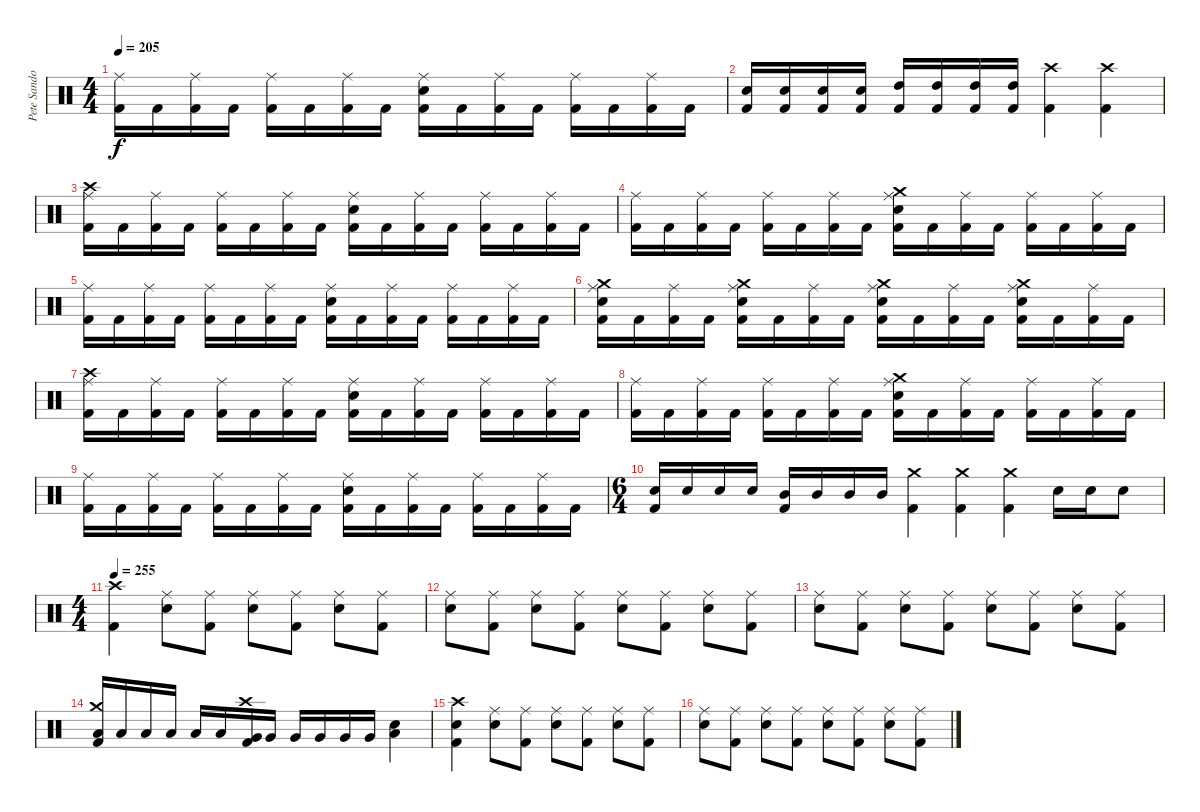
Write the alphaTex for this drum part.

\track ("Pete Sandoval" "Pete Sando") {instrument percussion}
\staff {score}
\articulation defaults
\ts (4 4)
\tempo 205
\clef neutral
\ks c
("Ride (middle)" "Kick (hit) 2").16{dy f} "Kick (hit) 2".16 ("Ride (middle)" "Kick (hit) 2").16 "Kick (hit) 2".16 ("Ride (middle)" "Kick (hit) 2").16 "Kick (hit) 2".16 ("Ride (middle)" "Kick (hit) 2").16 "Kick (hit) 2".16 ("Electric Snare (hit)" "Ride (middle)" "Kick (hit) 2").16 "Kick (hit) 2".16 ("Ride (middle)" "Kick (hit) 2").16 "Kick (hit) 2".16 ("Ride (middle)" "Kick (hit) 2").16 "Kick (hit) 2".16 ("Ride (middle)" "Kick (hit) 2").16 "Kick (hit) 2".16 |
("Kick (hit) 2" "Electric Snare (hit)").16 ("Kick (hit) 2" "Electric Snare (hit)").16 ("Kick (hit) 2" "Electric Snare (hit)").16 ("Kick (hit) 2" "Electric Snare (hit)").16 ("Kick (hit) 2" "High Tom (hit)").16 ("Kick (hit) 2" "High Tom (hit)").16 ("Kick (hit) 2" "High Tom (hit)").16 ("Kick (hit) 2" "High Tom (hit)").16 ("Crash high (hit)" "Kick (hit) 2").4 ("Crash high (hit)" "Kick (hit) 2").4 |
("Crash high (hit)" "Ride (middle)" "Kick (hit) 2").16 "Kick (hit) 2".16 ("Ride (middle)" "Kick (hit) 2").16 "Kick (hit) 2".16 ("Ride (middle)" "Kick (hit) 2").16 "Kick (hit) 2".16 ("Ride (middle)" "Kick (hit) 2").16 "Kick (hit) 2".16 ("Electric Snare (hit)" "Ride (middle)" "Kick (hit) 2").16 "Kick (hit) 2".16 ("Ride (middle)" "Kick (hit) 2").16 "Kick (hit) 2".16 ("Ride (middle)" "Kick (hit) 2").16 "Kick (hit) 2".16 ("Ride (middle)" "Kick (hit) 2").16 "Kick (hit) 2".16 |
("Ride (middle)" "Kick (hit) 2").16 "Kick (hit) 2".16 ("Ride (middle)" "Kick (hit) 2").16 "Kick (hit) 2".16 ("Ride (middle)" "Kick (hit) 2").16 "Kick (hit) 2".16 ("Ride (middle)" "Kick (hit) 2").16 "Kick (hit) 2".16 ("Crash medium (hit)" "Electric Snare (hit)" "Ride (middle)" "Kick (hit) 2").16 "Kick (hit) 2".16 ("Ride (middle)" "Kick (hit) 2").16 "Kick (hit) 2".16 ("Ride (middle)" "Kick (hit) 2").16 "Kick (hit) 2".16 ("Ride (middle)" "Kick (hit) 2").16 "Kick (hit) 2".16 |
("Ride (middle)" "Kick (hit) 2").16 "Kick (hit) 2".16 ("Ride (middle)" "Kick (hit) 2").16 "Kick (hit) 2".16 ("Ride (middle)" "Kick (hit) 2").16 "Kick (hit) 2".16 ("Ride (middle)" "Kick (hit) 2").16 "Kick (hit) 2".16 ("Electric Snare (hit)" "Ride (middle)" "Kick (hit) 2").16 "Kick (hit) 2".16 ("Ride (middle)" "Kick (hit) 2").16 "Kick (hit) 2".16 ("Ride (middle)" "Kick (hit) 2").16 "Kick (hit) 2".16 ("Ride (middle)" "Kick (hit) 2").16 "Kick (hit) 2".16 |
("Crash medium (hit)" "Electric Snare (hit)" "Ride (middle)" "Kick (hit) 2").16 "Kick (hit) 2".16 ("Ride (middle)" "Kick (hit) 2").16 "Kick (hit) 2".16 ("Crash medium (hit)" "Electric Snare (hit)" "Ride (middle)" "Kick (hit) 2").16 "Kick (hit) 2".16 ("Ride (middle)" "Kick (hit) 2").16 "Kick (hit) 2".16 ("Crash medium (hit)" "Electric Snare (hit)" "Ride (middle)" "Kick (hit) 2").16 "Kick (hit) 2".16 ("Ride (middle)" "Kick (hit) 2").16 "Kick (hit) 2".16 ("Crash medium (hit)" "Electric Snare (hit)" "Ride (middle)" "Kick (hit) 2").16 "Kick (hit) 2".16 ("Ride (middle)" "Kick (hit) 2").16 "Kick (hit) 2".16 |
("Crash high (hit)" "Ride (middle)" "Kick (hit) 2").16 "Kick (hit) 2".16 ("Ride (middle)" "Kick (hit) 2").16 "Kick (hit) 2".16 ("Ride (middle)" "Kick (hit) 2").16 "Kick (hit) 2".16 ("Ride (middle)" "Kick (hit) 2").16 "Kick (hit) 2".16 ("Electric Snare (hit)" "Ride (middle)" "Kick (hit) 2").16 "Kick (hit) 2".16 ("Ride (middle)" "Kick (hit) 2").16 "Kick (hit) 2".16 ("Ride (middle)" "Kick (hit) 2").16 "Kick (hit) 2".16 ("Ride (middle)" "Kick (hit) 2").16 "Kick (hit) 2".16 |
("Ride (middle)" "Kick (hit) 2").16 "Kick (hit) 2".16 ("Ride (middle)" "Kick (hit) 2").16 "Kick (hit) 2".16 ("Ride (middle)" "Kick (hit) 2").16 "Kick (hit) 2".16 ("Ride (middle)" "Kick (hit) 2").16 "Kick (hit) 2".16 ("Crash medium (hit)" "Electric Snare (hit)" "Ride (middle)" "Kick (hit) 2").16 "Kick (hit) 2".16 ("Ride (middle)" "Kick (hit) 2").16 "Kick (hit) 2".16 ("Ride (middle)" "Kick (hit) 2").16 "Kick (hit) 2".16 ("Ride (middle)" "Kick (hit) 2").16 "Kick (hit) 2".16 |
("Ride (middle)" "Kick (hit) 2").16 "Kick (hit) 2".16 ("Ride (middle)" "Kick (hit) 2").16 "Kick (hit) 2".16 ("Ride (middle)" "Kick (hit) 2").16 "Kick (hit) 2".16 ("Ride (middle)" "Kick (hit) 2").16 "Kick (hit) 2".16 ("Electric Snare (hit)" "Ride (middle)" "Kick (hit) 2").16 "Kick (hit) 2".16 ("Ride (middle)" "Kick (hit) 2").16 "Kick (hit) 2".16 ("Ride (middle)" "Kick (hit) 2").16 "Kick (hit) 2".16 ("Ride (middle)" "Kick (hit) 2").16 "Kick (hit) 2".16 |
\ts (6 4)
("Kick (hit) 2" "Electric Snare (hit)").16 "Electric Snare (hit)".16 "Electric Snare (hit)".16 "Electric Snare (hit)".16 ("Kick (hit) 2" "Mid Tom (hit)").16 "Mid Tom (hit)".16 "Mid Tom (hit)".16 "Mid Tom (hit)".16 ("Crash medium (hit)" "Kick (hit) 2").4 ("Crash medium (hit)" "Kick (hit) 2").4 ("Crash medium (hit)" "Kick (hit) 2").4 "Electric Snare (hit)".16 "Electric Snare (hit)".16 "Electric Snare (hit)".8 |
\ts (4 4)
\tempo 255
("Crash high (hit)" "Kick (hit) 2").4 ("Ride (middle)" "Electric Snare (hit)").8 ("Ride (middle)" "Kick (hit) 2").8 ("Ride (middle)" "Electric Snare (hit)").8 ("Ride (middle)" "Kick (hit) 2").8 ("Ride (middle)" "Electric Snare (hit)").8 ("Ride (middle)" "Kick (hit) 2").8 |
("Ride (middle)" "Electric Snare (hit)").8 ("Ride (middle)" "Kick (hit) 2").8 ("Ride (middle)" "Electric Snare (hit)").8 ("Ride (middle)" "Kick (hit) 2").8 ("Ride (middle)" "Electric Snare (hit)").8 ("Ride (middle)" "Kick (hit) 2").8 ("Ride (middle)" "Electric Snare (hit)").8 ("Ride (middle)" "Kick (hit) 2").8 |
("Ride (middle)" "Electric Snare (hit)").8 ("Ride (middle)" "Kick (hit) 2").8 ("Ride (middle)" "Electric Snare (hit)").8 ("Ride (middle)" "Kick (hit) 2").8 ("Ride (middle)" "Electric Snare (hit)").8 ("Ride (middle)" "Kick (hit) 2").8 ("Ride (middle)" "Electric Snare (hit)").8 ("Ride (middle)" "Kick (hit) 2").8 |
("Crash medium (hit)" "Kick (hit) 2" "Low Tom (hit)").16 "Low Tom (hit)".16 "Low Tom (hit)".16 "Low Tom (hit)".16 "Low Tom (hit)".16 "Low Tom (hit)".16 ("Crash high (hit)" "Kick (hit) 2" "Very Low Tom (hit)").16 "Very Low Tom (hit)".16 "Very Low Tom (hit)".16 "Very Low Tom (hit)".16 "Very Low Tom (hit)".16 "Very Low Tom (hit)".16 ("Low Tom (hit)" "Electric Snare (hit)").4 |
("Crash high (hit)" "Electric Snare (hit)" "Kick (hit) 2").4 ("Ride (middle)" "Electric Snare (hit)").8 ("Ride (middle)" "Kick (hit) 2").8 ("Ride (middle)" "Electric Snare (hit)").8 ("Ride (middle)" "Kick (hit) 2").8 ("Ride (middle)" "Electric Snare (hit)").8 ("Ride (middle)" "Kick (hit) 2").8 |
("Ride (middle)" "Electric Snare (hit)").8 ("Ride (middle)" "Kick (hit) 2").8 ("Ride (middle)" "Electric Snare (hit)").8 ("Ride (middle)" "Kick (hit) 2").8 ("Ride (middle)" "Electric Snare (hit)").8 ("Ride (middle)" "Kick (hit) 2").8 ("Ride (middle)" "Electric Snare (hit)").8 ("Ride (middle)" "Kick (hit) 2").8
